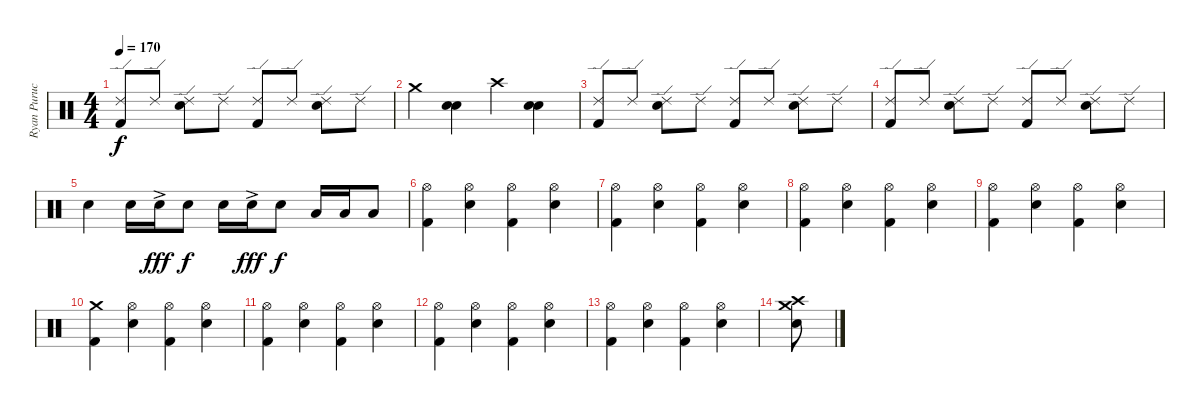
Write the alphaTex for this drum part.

\track ("Ryan Purucker" "Ryan Puruc") {instrument percussion}
\staff {score}
\articulation defaults
\ts (4 4)
\tempo 170
\clef neutral
\ks c
("Ride (edge) 2" "Kick (hit) 2").8{dy f} "Ride (edge) 2".8 ("Ride (edge) 2" "Snare (hit) 2").8 "Ride (edge) 2".8 ("Ride (edge) 2" "Kick (hit) 2").8 "Ride (edge) 2".8 ("Ride (edge) 2" "Snare (hit) 2").8 "Ride (edge) 2".8 |
"Crash medium (hit)".4 ("Snare (hit) 2" "Snare (hit) 2").4 "Crash high (hit)".4 ("Snare (hit) 2" "Snare (hit) 2").4 |
("Ride (edge) 2" "Kick (hit) 2").8 "Ride (edge) 2".8 ("Ride (edge) 2" "Snare (hit) 2").8 "Ride (edge) 2".8 ("Ride (edge) 2" "Kick (hit) 2").8 "Ride (edge) 2".8 ("Ride (edge) 2" "Snare (hit) 2").8 "Ride (edge) 2".8 |
("Ride (edge) 2" "Kick (hit) 2").8 "Ride (edge) 2".8 ("Ride (edge) 2" "Snare (hit) 2").8 "Ride (edge) 2".8 ("Ride (edge) 2" "Kick (hit) 2").8 "Ride (edge) 2".8 ("Ride (edge) 2" "Snare (hit) 2").8 "Ride (edge) 2".8 |
"Electric Snare (hit)".4 "Electric Snare (hit)".16 "Electric Snare (hit)"{ac}.16{dy fff} "Electric Snare (hit)".8{dy f} "Electric Snare (hit)".16 "Electric Snare (hit)"{ac}.16{dy fff} "Electric Snare (hit)".8{dy f} "Low Tom (hit)".16 "Low Tom (hit)".16 "Low Tom (hit)".8 |
("Hi-Hat (open)" "Kick (hit) 2").4 ("Hi-Hat (open)" "Snare (hit) 2").4 ("Hi-Hat (open)" "Kick (hit) 2").4 ("Hi-Hat (open)" "Snare (hit) 2").4 |
("Hi-Hat (open)" "Kick (hit) 2").4 ("Hi-Hat (open)" "Snare (hit) 2").4 ("Hi-Hat (open)" "Kick (hit) 2").4 ("Hi-Hat (open)" "Snare (hit) 2").4 |
("Hi-Hat (open)" "Kick (hit) 2").4 ("Hi-Hat (open)" "Snare (hit) 2").4 ("Hi-Hat (open)" "Kick (hit) 2").4 ("Hi-Hat (open)" "Snare (hit) 2").4 |
("Hi-Hat (open)" "Kick (hit) 2").4 ("Hi-Hat (open)" "Snare (hit) 2").4 ("Hi-Hat (open)" "Kick (hit) 2").4 ("Hi-Hat (open)" "Snare (hit) 2").4 |
("Crash medium (hit)" "Kick (hit) 2").4 ("Hi-Hat (open)" "Snare (hit) 2").4 ("Hi-Hat (open)" "Kick (hit) 2").4 ("Hi-Hat (open)" "Snare (hit) 2").4 |
("Hi-Hat (open)" "Kick (hit) 2").4 ("Hi-Hat (open)" "Snare (hit) 2").4 ("Hi-Hat (open)" "Kick (hit) 2").4 ("Hi-Hat (open)" "Snare (hit) 2").4 |
("Hi-Hat (open)" "Kick (hit) 2").4 ("Hi-Hat (open)" "Snare (hit) 2").4 ("Hi-Hat (open)" "Kick (hit) 2").4 ("Hi-Hat (open)" "Snare (hit) 2").4 |
("Hi-Hat (open)" "Kick (hit) 2").4 ("Hi-Hat (open)" "Snare (hit) 2").4 ("Hi-Hat (open)" "Kick (hit) 2").4 ("Hi-Hat (open)" "Snare (hit) 2").4 |
("Crash medium (hit)" "Snare (hit) 2" "Crash high (hit)").8
